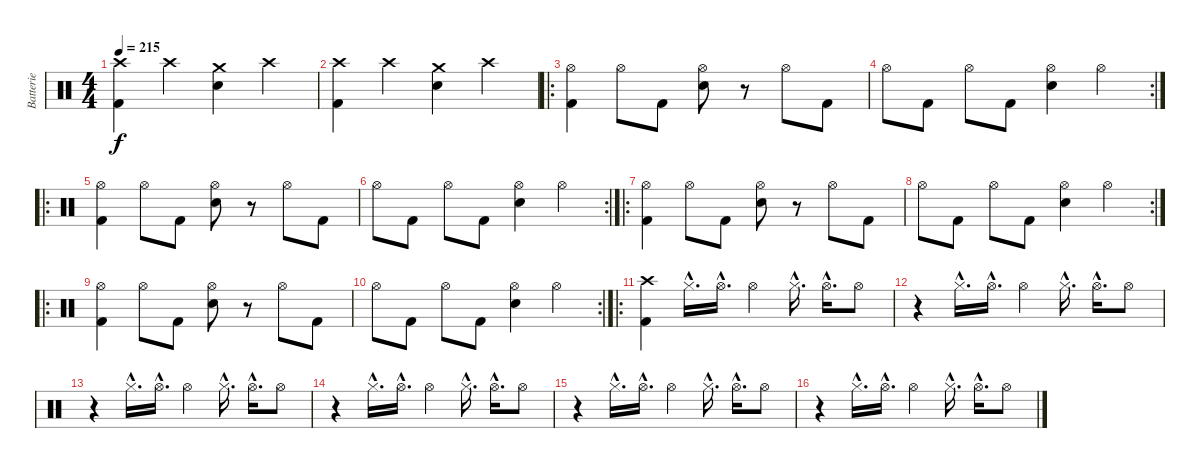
\track ("Batterie" "Batterie") {instrument percussion}
\staff {score}
\articulation defaults
\ts (4 4)
\tempo 215
\clef neutral
\ks c
("Crash high (hit)" "Kick (hit) 2").4{dy f} "Crash high (hit)".4 ("Crash medium (hit)" "Electric Snare (hit)").4 "Crash high (hit)".4 |
("Crash high (hit)" "Kick (hit) 2").4 "Crash high (hit)".4 ("Crash medium (hit)" "Electric Snare (hit)").4 "Crash high (hit)".4 |
\ro
("Hi-Hat (open)" "Kick (hit) 2").4 "Hi-Hat (open)".8 "Kick (hit) 2".8 ("Hi-Hat (open)" "Electric Snare (hit)").8 r.8 "Hi-Hat (open)".8 "Kick (hit) 2".8 |
\rc 2 "Hi-Hat (open)".8 "Kick (hit) 2".8 "Hi-Hat (open)".8 "Kick (hit) 2".8
("Hi-Hat (open)" "Electric Snare (hit)").4 "Hi-Hat (open)".4 |
\ro
("Hi-Hat (open)" "Kick (hit) 2").4 "Hi-Hat (open)".8 "Kick (hit) 2".8 ("Hi-Hat (open)" "Electric Snare (hit)").8 r.8 "Hi-Hat (open)".8 "Kick (hit) 2".8 |
\rc 2 "Hi-Hat (open)".8 "Kick (hit) 2".8 "Hi-Hat (open)".8 "Kick (hit) 2".8
("Hi-Hat (open)" "Electric Snare (hit)").4 "Hi-Hat (open)".4 |
\ro
("Hi-Hat (open)" "Kick (hit) 2").4 "Hi-Hat (open)".8 "Kick (hit) 2".8 ("Hi-Hat (open)" "Electric Snare (hit)").8 r.8 "Hi-Hat (open)".8 "Kick (hit) 2".8 |
\rc 2 "Hi-Hat (open)".8 "Kick (hit) 2".8 "Hi-Hat (open)".8 "Kick (hit) 2".8
("Hi-Hat (open)" "Electric Snare (hit)").4 "Hi-Hat (open)".4 |
\ro
("Hi-Hat (open)" "Kick (hit) 2").4 "Hi-Hat (open)".8 "Kick (hit) 2".8 ("Hi-Hat (open)" "Electric Snare (hit)").8 r.8 "Hi-Hat (open)".8 "Kick (hit) 2".8 |
\rc 2 "Hi-Hat (open)".8 "Kick (hit) 2".8 "Hi-Hat (open)".8 "Kick (hit) 2".8
("Hi-Hat (open)" "Electric Snare (hit)").4 "Hi-Hat (open)".4 |
\ro
("Crash high (hit)" "Kick (hit) 2").4 "Hi-Hat (closed)"{hac}.16{d} "Hi-Hat (open)"{hac}.16{d} "Hi-Hat (open)".4 "Hi-Hat (closed)"{hac}.16{d} "Hi-Hat (open)"{hac}.16{d} "Hi-Hat (open)".8 |
r.4 "Hi-Hat (closed)"{hac}.16{d} "Hi-Hat (open)"{hac}.16{d} "Hi-Hat (open)".4 "Hi-Hat (closed)"{hac}.16{d} "Hi-Hat (open)"{hac}.16{d} "Hi-Hat (open)".8 |
r.4 "Hi-Hat (closed)"{hac}.16{d} "Hi-Hat (open)"{hac}.16{d} "Hi-Hat (open)".4 "Hi-Hat (closed)"{hac}.16{d} "Hi-Hat (open)"{hac}.16{d} "Hi-Hat (open)".8 |
r.4 "Hi-Hat (closed)"{hac}.16{d} "Hi-Hat (open)"{hac}.16{d} "Hi-Hat (open)".4 "Hi-Hat (closed)"{hac}.16{d} "Hi-Hat (open)"{hac}.16{d} "Hi-Hat (open)".8 |
r.4 "Hi-Hat (closed)"{hac}.16{d} "Hi-Hat (open)"{hac}.16{d} "Hi-Hat (open)".4 "Hi-Hat (closed)"{hac}.16{d} "Hi-Hat (open)"{hac}.16{d} "Hi-Hat (open)".8 |
r.4 "Hi-Hat (closed)"{hac}.16{d} "Hi-Hat (open)"{hac}.16{d} "Hi-Hat (open)".4 "Hi-Hat (closed)"{hac}.16{d} "Hi-Hat (open)"{hac}.16{d} "Hi-Hat (open)".8
